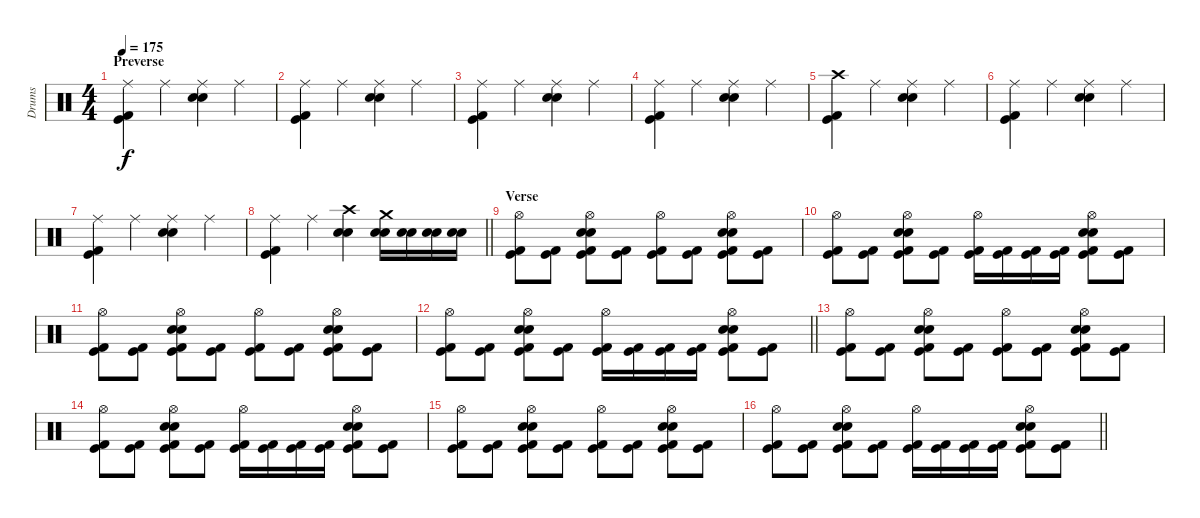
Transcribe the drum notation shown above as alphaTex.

\track ("Drums" "Drums") {instrument percussion}
\staff {score}
\articulation defaults
\ts (4 4)
\section ("" "Preverse")
\tempo 175
\clef neutral
\ks c
("Ride (middle)" "Kick (hit) 2" "Kick (hit)").4{dy f} "Ride (middle)".4 ("Ride (middle)" "Electric Snare (hit)" "Electric Snare (hit)").4 "Ride (middle)".4 |
("Ride (middle)" "Kick (hit) 2" "Kick (hit)").4 "Ride (middle)".4 ("Ride (middle)" "Electric Snare (hit)" "Electric Snare (hit)").4 "Ride (middle)".4 |
("Ride (middle)" "Kick (hit) 2" "Kick (hit)").4 "Ride (middle)".4 ("Ride (middle)" "Electric Snare (hit)" "Electric Snare (hit)").4 "Ride (middle)".4 |
("Ride (middle)" "Kick (hit) 2" "Kick (hit)").4 "Ride (middle)".4 ("Ride (middle)" "Electric Snare (hit)" "Electric Snare (hit)").4 "Ride (middle)".4 |
("Crash high (hit)" "Kick (hit) 2" "Kick (hit)").4 "Ride (middle)".4 ("Ride (middle)" "Electric Snare (hit)" "Electric Snare (hit)").4 "Ride (middle)".4 |
("Ride (middle)" "Kick (hit) 2" "Kick (hit)").4 "Ride (middle)".4 ("Ride (middle)" "Electric Snare (hit)" "Electric Snare (hit)").4 "Ride (middle)".4 |
("Ride (middle)" "Kick (hit) 2" "Kick (hit)").4 "Ride (middle)".4 ("Ride (middle)" "Electric Snare (hit)" "Electric Snare (hit)").4 "Ride (middle)".4 |
\barLineRight lightlight
("Ride (middle)" "Kick (hit) 2" "Kick (hit)").4 "Ride (middle)".4 ("Crash high (hit)" "Electric Snare (hit)" "Electric Snare (hit)").4 ("Crash medium (hit)" "Electric Snare (hit)" "Electric Snare (hit)").16 ("Electric Snare (hit)" "Electric Snare (hit)").16 ("Electric Snare (hit)" "Electric Snare (hit)").16 ("Electric Snare (hit)" "Electric Snare (hit)").16 |
\section ("" "Verse")
("Hi-Hat (open)" "Kick (hit) 2" "Kick (hit)").8 ("Kick (hit) 2" "Kick (hit)").8 ("Hi-Hat (open)" "Electric Snare (hit)" "Electric Snare (hit)" "Kick (hit) 2" "Kick (hit)").8 ("Kick (hit) 2" "Kick (hit)").8 ("Hi-Hat (open)" "Kick (hit) 2" "Kick (hit)").8 ("Kick (hit) 2" "Kick (hit)").8 ("Hi-Hat (open)" "Electric Snare (hit)" "Electric Snare (hit)" "Kick (hit) 2" "Kick (hit)").8 ("Kick (hit) 2" "Kick (hit)").8 |
("Hi-Hat (open)" "Kick (hit) 2" "Kick (hit)").8 ("Kick (hit) 2" "Kick (hit)").8 ("Hi-Hat (open)" "Electric Snare (hit)" "Electric Snare (hit)" "Kick (hit) 2" "Kick (hit)").8 ("Kick (hit) 2" "Kick (hit)").8 ("Hi-Hat (open)" "Kick (hit) 2" "Kick (hit)").16 ("Kick (hit) 2" "Kick (hit)").16 ("Kick (hit) 2" "Kick (hit)").16 ("Kick (hit) 2" "Kick (hit)").16 ("Hi-Hat (open)" "Electric Snare (hit)" "Electric Snare (hit)" "Kick (hit) 2" "Kick (hit)").8 ("Kick (hit) 2" "Kick (hit)").8 |
("Hi-Hat (open)" "Kick (hit) 2" "Kick (hit)").8 ("Kick (hit) 2" "Kick (hit)").8 ("Hi-Hat (open)" "Electric Snare (hit)" "Electric Snare (hit)" "Kick (hit) 2" "Kick (hit)").8 ("Kick (hit) 2" "Kick (hit)").8 ("Hi-Hat (open)" "Kick (hit) 2" "Kick (hit)").8 ("Kick (hit) 2" "Kick (hit)").8 ("Hi-Hat (open)" "Electric Snare (hit)" "Electric Snare (hit)" "Kick (hit) 2" "Kick (hit)").8 ("Kick (hit) 2" "Kick (hit)").8 |
\barLineRight lightlight
("Hi-Hat (open)" "Kick (hit) 2" "Kick (hit)").8 ("Kick (hit) 2" "Kick (hit)").8 ("Hi-Hat (open)" "Electric Snare (hit)" "Electric Snare (hit)" "Kick (hit) 2" "Kick (hit)").8 ("Kick (hit) 2" "Kick (hit)").8 ("Hi-Hat (open)" "Kick (hit) 2" "Kick (hit)").16 ("Kick (hit) 2" "Kick (hit)").16 ("Kick (hit) 2" "Kick (hit)").16 ("Kick (hit) 2" "Kick (hit)").16 ("Hi-Hat (open)" "Electric Snare (hit)" "Electric Snare (hit)" "Kick (hit) 2" "Kick (hit)").8 ("Kick (hit) 2" "Kick (hit)").8 |
("Hi-Hat (open)" "Kick (hit) 2" "Kick (hit)").8 ("Kick (hit) 2" "Kick (hit)").8 ("Hi-Hat (open)" "Electric Snare (hit)" "Electric Snare (hit)" "Kick (hit) 2" "Kick (hit)").8 ("Kick (hit) 2" "Kick (hit)").8 ("Hi-Hat (open)" "Kick (hit) 2" "Kick (hit)").8 ("Kick (hit) 2" "Kick (hit)").8 ("Hi-Hat (open)" "Electric Snare (hit)" "Electric Snare (hit)" "Kick (hit) 2" "Kick (hit)").8 ("Kick (hit) 2" "Kick (hit)").8 |
("Hi-Hat (open)" "Kick (hit) 2" "Kick (hit)").8 ("Kick (hit) 2" "Kick (hit)").8 ("Hi-Hat (open)" "Electric Snare (hit)" "Electric Snare (hit)" "Kick (hit) 2" "Kick (hit)").8 ("Kick (hit) 2" "Kick (hit)").8 ("Hi-Hat (open)" "Kick (hit) 2" "Kick (hit)").16 ("Kick (hit) 2" "Kick (hit)").16 ("Kick (hit) 2" "Kick (hit)").16 ("Kick (hit) 2" "Kick (hit)").16 ("Hi-Hat (open)" "Electric Snare (hit)" "Electric Snare (hit)" "Kick (hit) 2" "Kick (hit)").8 ("Kick (hit) 2" "Kick (hit)").8 |
("Hi-Hat (open)" "Kick (hit) 2" "Kick (hit)").8 ("Kick (hit) 2" "Kick (hit)").8 ("Hi-Hat (open)" "Electric Snare (hit)" "Electric Snare (hit)" "Kick (hit) 2" "Kick (hit)").8 ("Kick (hit) 2" "Kick (hit)").8 ("Hi-Hat (open)" "Kick (hit) 2" "Kick (hit)").8 ("Kick (hit) 2" "Kick (hit)").8 ("Hi-Hat (open)" "Electric Snare (hit)" "Electric Snare (hit)" "Kick (hit) 2" "Kick (hit)").8 ("Kick (hit) 2" "Kick (hit)").8 |
\barLineRight lightlight
("Hi-Hat (open)" "Kick (hit) 2" "Kick (hit)").8 ("Kick (hit) 2" "Kick (hit)").8 ("Hi-Hat (open)" "Electric Snare (hit)" "Electric Snare (hit)" "Kick (hit) 2" "Kick (hit)").8 ("Kick (hit) 2" "Kick (hit)").8 ("Hi-Hat (open)" "Kick (hit) 2" "Kick (hit)").16 ("Kick (hit) 2" "Kick (hit)").16 ("Kick (hit) 2" "Kick (hit)").16 ("Kick (hit) 2" "Kick (hit)").16 ("Hi-Hat (open)" "Electric Snare (hit)" "Electric Snare (hit)" "Kick (hit) 2" "Kick (hit)").8 ("Kick (hit) 2" "Kick (hit)").8
